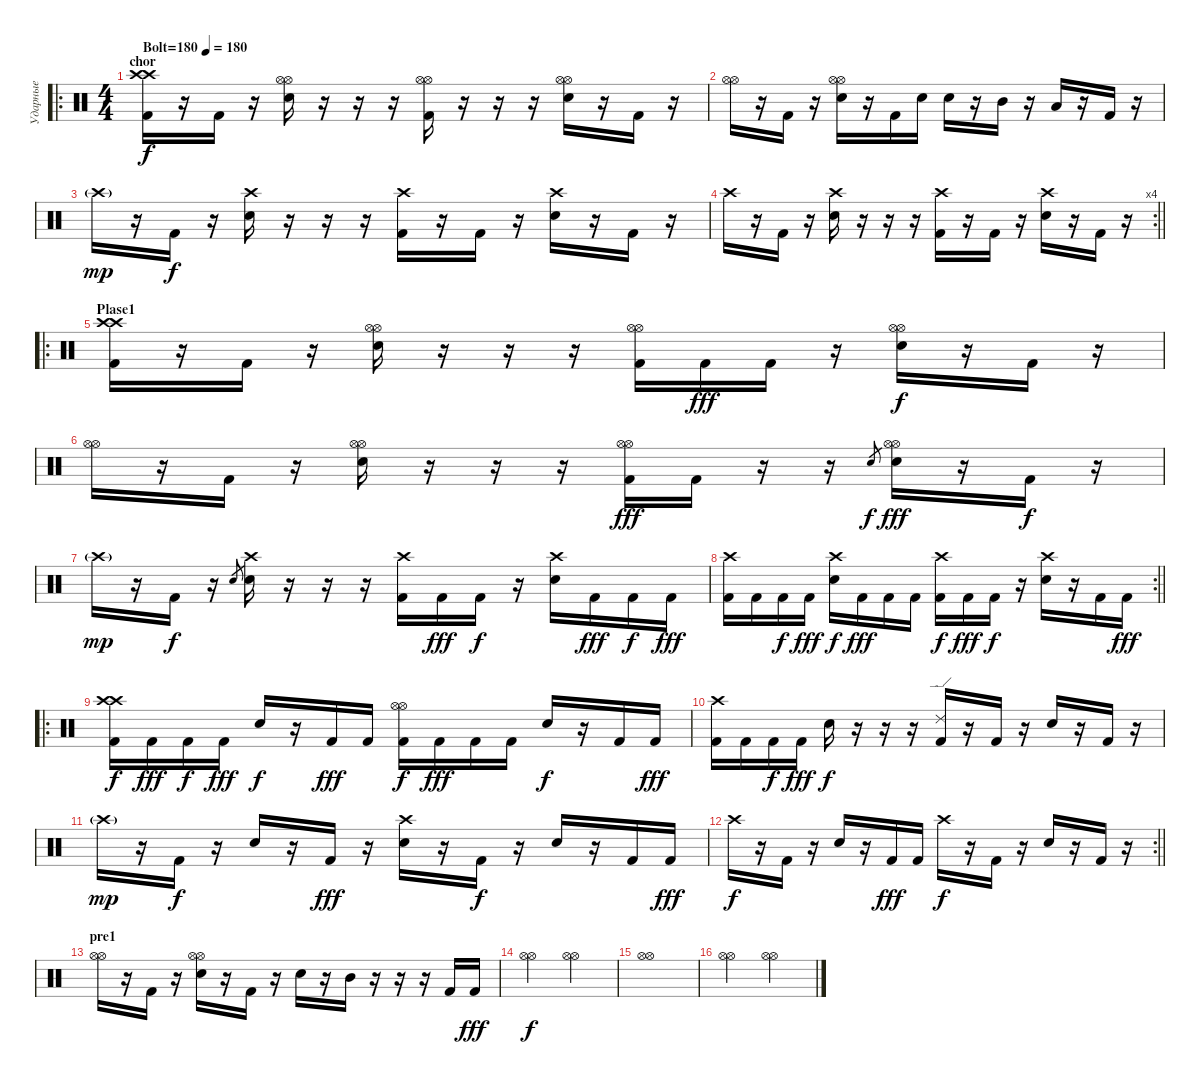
\track ("Ударные" "Ударные") {instrument percussion}
\staff {score}
\articulation defaults
\ro
\ts (4 4)
\section ("" "chor")
\tempo (180 "Bolt=180")
\clef neutral
\ks c
("Crash high (hit)" "Crash high (hit)" "Kick (hit) 2").16{dy f} r.16 "Kick (hit) 2".16 r.16 ("Hi-Hat (open)" "Hi-Hat (open)" "Electric Snare (hit)").16 r.16 r.16 r.16 ("Hi-Hat (open)" "Hi-Hat (open)" "Kick (hit) 2").16 r.16 r.16 r.16 ("Hi-Hat (open)" "Hi-Hat (open)" "Electric Snare (hit)").16 r.16 "Kick (hit) 2".16 r.16 |
("Hi-Hat (open)" "Hi-Hat (open)").16 r.16 "Kick (hit) 2".16 r.16 ("Hi-Hat (open)" "Hi-Hat (open)" "Electric Snare (hit)").16 r.16 "Kick (hit) 2".16 "Electric Snare (hit)".16 "Electric Snare (hit)".16 r.16 "Mid Tom (hit)".16 r.16 "Low Tom (hit)".16 r.16 "Kick (hit) 2".16 r.16 |
"Crash high (hit)"{g}.16{dy mp} r.16 "Kick (hit) 2".16{dy f} r.16 ("Crash high (hit)" "Electric Snare (hit)").16 r.16 r.16 r.16 ("Crash high (hit)" "Kick (hit) 2").16 r.16 "Kick (hit) 2".16 r.16 ("Crash high (hit)" "Electric Snare (hit)").16 r.16 "Kick (hit) 2".16 r.16 |
\rc 4
\barLineRight lightlight "Crash high (hit)".16
r.16 "Kick (hit) 2".16 r.16 ("Crash high (hit)" "Electric Snare (hit)").16 r.16 r.16 r.16 ("Crash high (hit)" "Kick (hit) 2").16 r.16 "Kick (hit) 2".16 r.16 ("Crash high (hit)" "Electric Snare (hit)").16 r.16 "Kick (hit) 2".16 r.16 |
\ro
\section ("" "Plase1")
("Crash high (hit)" "Crash high (hit)" "Kick (hit) 2").16 r.16 "Kick (hit) 2".16 r.16 ("Hi-Hat (open)" "Hi-Hat (open)" "Electric Snare (hit)").16 r.16 r.16 r.16 ("Hi-Hat (open)" "Hi-Hat (open)" "Kick (hit) 2").16 "Kick (hit) 2".16{dy fff} "Kick (hit) 2".16 r.16 ("Hi-Hat (open)" "Hi-Hat (open)" "Electric Snare (hit)").16{dy f} r.16 "Kick (hit) 2".16 r.16 |
("Hi-Hat (open)" "Hi-Hat (open)").16 r.16 "Kick (hit) 2".16 r.16 ("Hi-Hat (open)" "Hi-Hat (open)" "Electric Snare (hit)").16 r.16 r.16 r.16 ("Hi-Hat (open)" "Hi-Hat (open)" "Kick (hit) 2").16{dy fff} "Kick (hit) 2".16 r.16 r.16 "Electric Snare (hit)".8{gr dy f} ("Hi-Hat (open)" "Hi-Hat (open)" "Electric Snare (hit)").16{dy fff} r.16 "Kick (hit) 2".16{dy f} r.16 |
"Crash high (hit)"{g}.16{dy mp} r.16 "Kick (hit) 2".16{dy f} r.16 "Electric Snare (hit)".8{gr} ("Crash high (hit)" "Electric Snare (hit)").16 r.16 r.16 r.16 ("Crash high (hit)" "Kick (hit) 2").16 "Kick (hit) 2".16{dy fff} "Kick (hit) 2".16{dy f} r.16 ("Crash high (hit)" "Electric Snare (hit)").16 "Kick (hit) 2".16{dy fff} "Kick (hit) 2".16{dy f} "Kick (hit) 2".16{dy fff} |
\rc 2
\barLineRight lightlight
("Crash high (hit)" "Kick (hit) 2").16 "Kick (hit) 2".16 "Kick (hit) 2".16{dy f} "Kick (hit) 2".16{dy fff} ("Crash high (hit)" "Electric Snare (hit)").16{dy f} "Kick (hit) 2".16{dy fff} "Kick (hit) 2".16 "Kick (hit) 2".16 ("Crash high (hit)" "Kick (hit) 2").16{dy f} "Kick (hit) 2".16{dy fff} "Kick (hit) 2".16{dy f} r.16 ("Crash high (hit)" "Electric Snare (hit)").16 r.16 "Kick (hit) 2".16 "Kick (hit) 2".16{dy fff} |
\ro
("Crash high (hit)" "Crash high (hit)" "Kick (hit) 2").16{dy f} "Kick (hit) 2".16{dy fff} "Kick (hit) 2".16{dy f} "Kick (hit) 2".16{dy fff} "Electric Snare (hit)".16{dy f} r.16 "Kick (hit) 2".16{dy fff} "Kick (hit) 2".16 ("Hi-Hat (open)" "Hi-Hat (open)" "Kick (hit) 2").16{dy f} "Kick (hit) 2".16{dy fff} "Kick (hit) 2".16 "Kick (hit) 2".16 "Electric Snare (hit)".16{dy f} r.16 "Kick (hit) 2".16 "Kick (hit) 2".16{dy fff} |
("Crash high (hit)" "Kick (hit) 2").16 "Kick (hit) 2".16 "Kick (hit) 2".16{dy f} "Kick (hit) 2".16{dy fff} "Electric Snare (hit)".16{dy f} r.16 r.16 r.16 ("Ride (edge) 2" "Kick (hit) 2").16 r.16 "Kick (hit) 2".16 r.16 "Electric Snare (hit)".16 r.16 "Kick (hit) 2".16 r.16 |
"Crash high (hit)"{g}.16{dy mp} r.16 "Kick (hit) 2".16{dy f} r.16 "Electric Snare (hit)".16 r.16 "Kick (hit) 2".16{dy fff} r.16 ("Crash high (hit)" "Electric Snare (hit)").16 r.16 "Kick (hit) 2".16{dy f} r.16 "Electric Snare (hit)".16 r.16 "Kick (hit) 2".16 "Kick (hit) 2".16{dy fff} |
\rc 2
\barLineRight lightlight "Crash high (hit)".16{dy f}
r.16 "Kick (hit) 2".16 r.16 "Electric Snare (hit)".16 r.16 "Kick (hit) 2".16{dy fff} "Kick (hit) 2".16 "Crash high (hit)".16{dy f} r.16 "Kick (hit) 2".16 r.16 "Electric Snare (hit)".16 r.16 "Kick (hit) 2".16 r.16 |
\section ("" "pre1")
("Hi-Hat (open)" "Hi-Hat (open)").16 r.16 "Kick (hit) 2".16 r.16 ("Hi-Hat (open)" "Hi-Hat (open)" "Electric Snare (hit)").16 r.16 "Kick (hit) 2".16 r.16 "Electric Snare (hit)".16 r.16 "Mid Tom (hit)".16 r.16 r.16 r.16 "Kick (hit) 2".16 "Kick (hit) 2".16{dy fff} |
("Hi-Hat (open)" "Hi-Hat (open)").2{dy f} ("Hi-Hat (open)" "Hi-Hat (open)").2 |
("Hi-Hat (open)" "Hi-Hat (open)").1 |
("Hi-Hat (open)" "Hi-Hat (open)").2 ("Hi-Hat (open)" "Hi-Hat (open)").2
